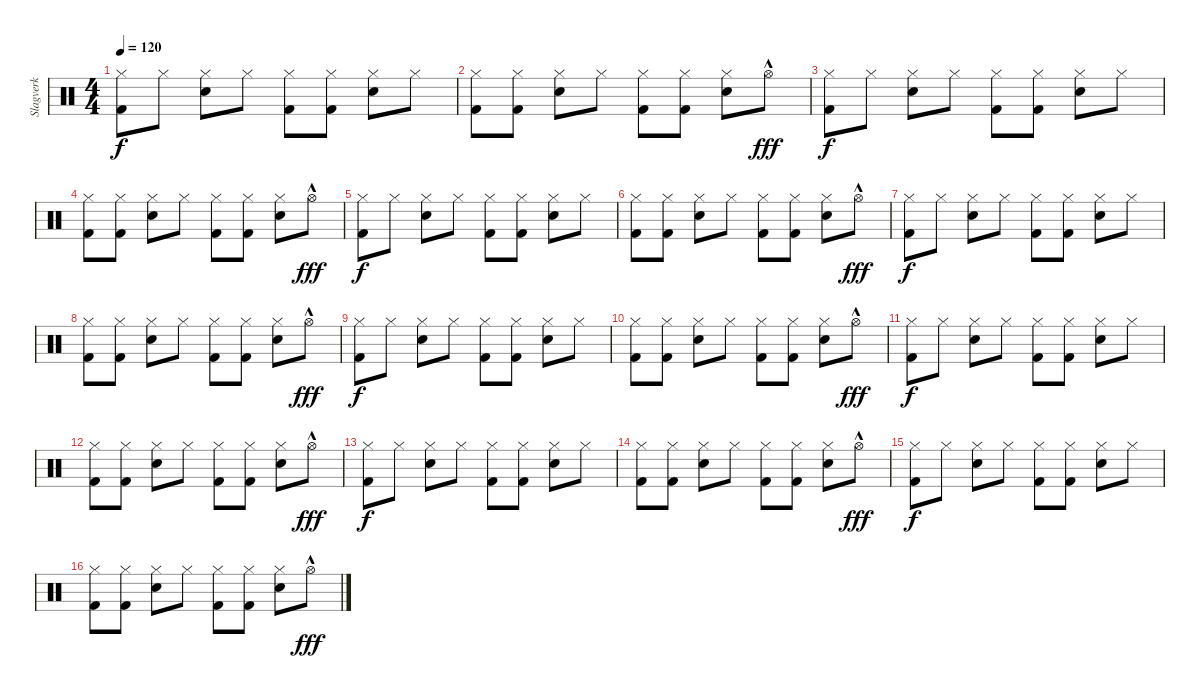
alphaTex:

\track ("Slagverk" "Slagverk") {instrument percussion}
\staff {score}
\articulation defaults
\ts (4 4)
\tempo 120
\clef neutral
\ks c
("Hi-Hat (closed)" "Kick (hit) 2").8{dy f} "Hi-Hat (closed)".8 ("Hi-Hat (closed)" "Snare (hit) 2").8 "Hi-Hat (closed)".8 ("Hi-Hat (closed)" "Kick (hit) 2").8 ("Hi-Hat (closed)" "Kick (hit) 2").8 ("Hi-Hat (closed)" "Snare (hit) 2").8 "Hi-Hat (closed)".8 |
("Hi-Hat (closed)" "Kick (hit) 2").8 ("Hi-Hat (closed)" "Kick (hit) 2").8 ("Hi-Hat (closed)" "Snare (hit) 2").8 "Hi-Hat (closed)".8 ("Hi-Hat (closed)" "Kick (hit) 2").8 ("Hi-Hat (closed)" "Kick (hit) 2").8 ("Hi-Hat (closed)" "Snare (hit) 2").8 "Hi-Hat (open)"{hac}.8{dy fff} |
("Hi-Hat (closed)" "Kick (hit) 2").8{dy f} "Hi-Hat (closed)".8 ("Hi-Hat (closed)" "Snare (hit) 2").8 "Hi-Hat (closed)".8 ("Hi-Hat (closed)" "Kick (hit) 2").8 ("Hi-Hat (closed)" "Kick (hit) 2").8 ("Hi-Hat (closed)" "Snare (hit) 2").8 "Hi-Hat (closed)".8 |
("Hi-Hat (closed)" "Kick (hit) 2").8 ("Hi-Hat (closed)" "Kick (hit) 2").8 ("Hi-Hat (closed)" "Snare (hit) 2").8 "Hi-Hat (closed)".8 ("Hi-Hat (closed)" "Kick (hit) 2").8 ("Hi-Hat (closed)" "Kick (hit) 2").8 ("Hi-Hat (closed)" "Snare (hit) 2").8 "Hi-Hat (open)"{hac}.8{dy fff} |
("Hi-Hat (closed)" "Kick (hit) 2").8{dy f} "Hi-Hat (closed)".8 ("Hi-Hat (closed)" "Snare (hit) 2").8 "Hi-Hat (closed)".8 ("Hi-Hat (closed)" "Kick (hit) 2").8 ("Hi-Hat (closed)" "Kick (hit) 2").8 ("Hi-Hat (closed)" "Snare (hit) 2").8 "Hi-Hat (closed)".8 |
("Hi-Hat (closed)" "Kick (hit) 2").8 ("Hi-Hat (closed)" "Kick (hit) 2").8 ("Hi-Hat (closed)" "Snare (hit) 2").8 "Hi-Hat (closed)".8 ("Hi-Hat (closed)" "Kick (hit) 2").8 ("Hi-Hat (closed)" "Kick (hit) 2").8 ("Hi-Hat (closed)" "Snare (hit) 2").8 "Hi-Hat (open)"{hac}.8{dy fff} |
("Hi-Hat (closed)" "Kick (hit) 2").8{dy f} "Hi-Hat (closed)".8 ("Hi-Hat (closed)" "Snare (hit) 2").8 "Hi-Hat (closed)".8 ("Hi-Hat (closed)" "Kick (hit) 2").8 ("Hi-Hat (closed)" "Kick (hit) 2").8 ("Hi-Hat (closed)" "Snare (hit) 2").8 "Hi-Hat (closed)".8 |
("Hi-Hat (closed)" "Kick (hit) 2").8 ("Hi-Hat (closed)" "Kick (hit) 2").8 ("Hi-Hat (closed)" "Snare (hit) 2").8 "Hi-Hat (closed)".8 ("Hi-Hat (closed)" "Kick (hit) 2").8 ("Hi-Hat (closed)" "Kick (hit) 2").8 ("Hi-Hat (closed)" "Snare (hit) 2").8 "Hi-Hat (open)"{hac}.8{dy fff} |
("Hi-Hat (closed)" "Kick (hit) 2").8{dy f} "Hi-Hat (closed)".8 ("Hi-Hat (closed)" "Snare (hit) 2").8 "Hi-Hat (closed)".8 ("Hi-Hat (closed)" "Kick (hit) 2").8 ("Hi-Hat (closed)" "Kick (hit) 2").8 ("Hi-Hat (closed)" "Snare (hit) 2").8 "Hi-Hat (closed)".8 |
("Hi-Hat (closed)" "Kick (hit) 2").8 ("Hi-Hat (closed)" "Kick (hit) 2").8 ("Hi-Hat (closed)" "Snare (hit) 2").8 "Hi-Hat (closed)".8 ("Hi-Hat (closed)" "Kick (hit) 2").8 ("Hi-Hat (closed)" "Kick (hit) 2").8 ("Hi-Hat (closed)" "Snare (hit) 2").8 "Hi-Hat (open)"{hac}.8{dy fff} |
("Hi-Hat (closed)" "Kick (hit) 2").8{dy f} "Hi-Hat (closed)".8 ("Hi-Hat (closed)" "Snare (hit) 2").8 "Hi-Hat (closed)".8 ("Hi-Hat (closed)" "Kick (hit) 2").8 ("Hi-Hat (closed)" "Kick (hit) 2").8 ("Hi-Hat (closed)" "Snare (hit) 2").8 "Hi-Hat (closed)".8 |
("Hi-Hat (closed)" "Kick (hit) 2").8 ("Hi-Hat (closed)" "Kick (hit) 2").8 ("Hi-Hat (closed)" "Snare (hit) 2").8 "Hi-Hat (closed)".8 ("Hi-Hat (closed)" "Kick (hit) 2").8 ("Hi-Hat (closed)" "Kick (hit) 2").8 ("Hi-Hat (closed)" "Snare (hit) 2").8 "Hi-Hat (open)"{hac}.8{dy fff} |
("Hi-Hat (closed)" "Kick (hit) 2").8{dy f} "Hi-Hat (closed)".8 ("Hi-Hat (closed)" "Snare (hit) 2").8 "Hi-Hat (closed)".8 ("Hi-Hat (closed)" "Kick (hit) 2").8 ("Hi-Hat (closed)" "Kick (hit) 2").8 ("Hi-Hat (closed)" "Snare (hit) 2").8 "Hi-Hat (closed)".8 |
("Hi-Hat (closed)" "Kick (hit) 2").8 ("Hi-Hat (closed)" "Kick (hit) 2").8 ("Hi-Hat (closed)" "Snare (hit) 2").8 "Hi-Hat (closed)".8 ("Hi-Hat (closed)" "Kick (hit) 2").8 ("Hi-Hat (closed)" "Kick (hit) 2").8 ("Hi-Hat (closed)" "Snare (hit) 2").8 "Hi-Hat (open)"{hac}.8{dy fff} |
("Hi-Hat (closed)" "Kick (hit) 2").8{dy f} "Hi-Hat (closed)".8 ("Hi-Hat (closed)" "Snare (hit) 2").8 "Hi-Hat (closed)".8 ("Hi-Hat (closed)" "Kick (hit) 2").8 ("Hi-Hat (closed)" "Kick (hit) 2").8 ("Hi-Hat (closed)" "Snare (hit) 2").8 "Hi-Hat (closed)".8 |
("Hi-Hat (closed)" "Kick (hit) 2").8 ("Hi-Hat (closed)" "Kick (hit) 2").8 ("Hi-Hat (closed)" "Snare (hit) 2").8 "Hi-Hat (closed)".8 ("Hi-Hat (closed)" "Kick (hit) 2").8 ("Hi-Hat (closed)" "Kick (hit) 2").8 ("Hi-Hat (closed)" "Snare (hit) 2").8 "Hi-Hat (open)"{hac}.8{dy fff}
